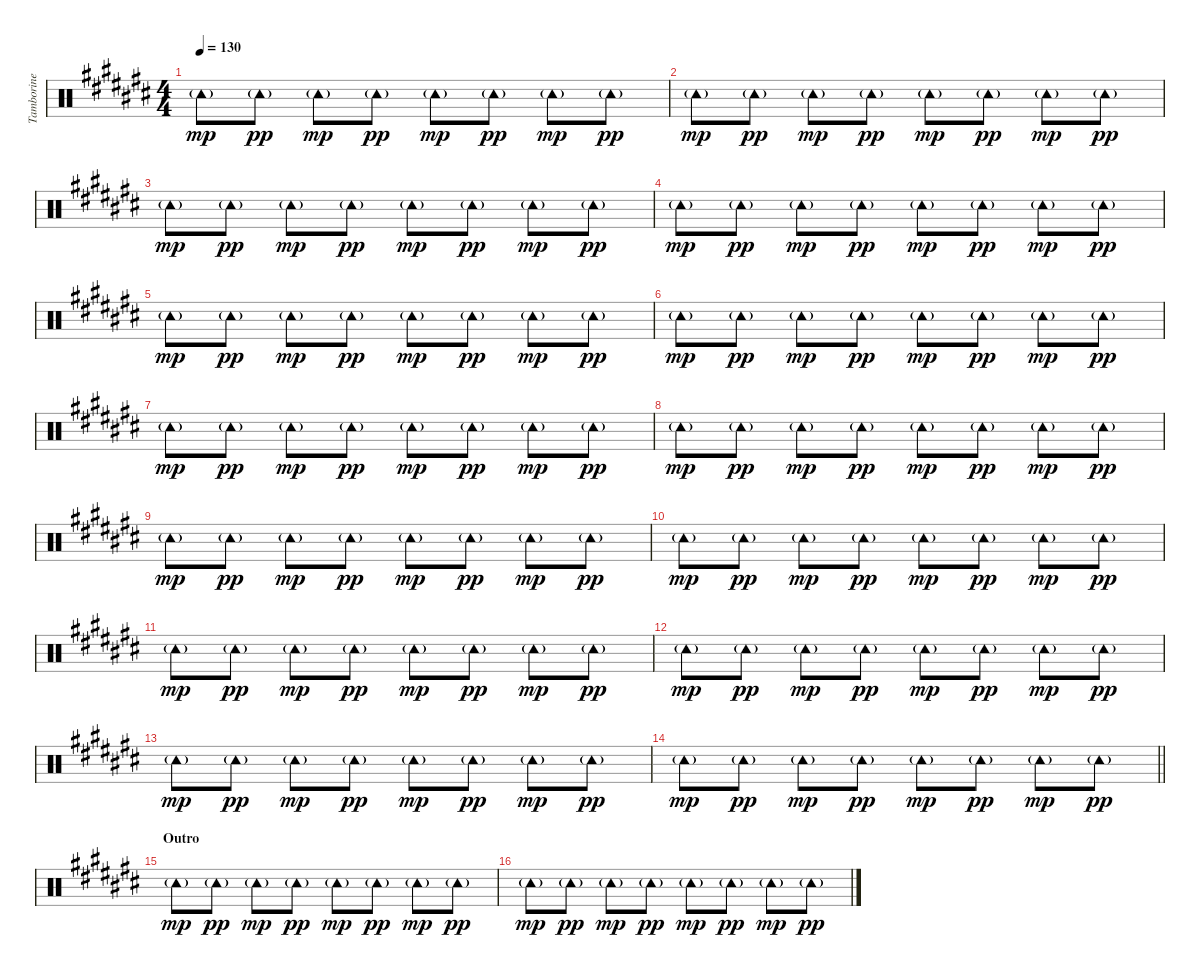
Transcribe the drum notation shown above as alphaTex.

\track ("Tamborine" "Tamborine") {instrument percussion}
\staff {score}
\articulation defaults
\ts (4 4)
\tempo 130
\clef neutral
\ks c# "Tambourine (hit)"{g}.8{dy mp} "Tambourine (hit)"{g}.8{dy pp} "Tambourine (hit)"{g}.8{dy mp} "Tambourine (hit)"{g}.8{dy pp} "Tambourine (hit)"{g}.8{dy mp} "Tambourine (hit)"{g}.8{dy pp} "Tambourine (hit)"{g}.8{dy mp} "Tambourine (hit)"{g}.8{dy pp}
|
"Tambourine (hit)"{g}.8{dy mp} "Tambourine (hit)"{g}.8{dy pp} "Tambourine (hit)"{g}.8{dy mp} "Tambourine (hit)"{g}.8{dy pp} "Tambourine (hit)"{g}.8{dy mp} "Tambourine (hit)"{g}.8{dy pp} "Tambourine (hit)"{g}.8{dy mp} "Tambourine (hit)"{g}.8{dy pp} |
"Tambourine (hit)"{g}.8{dy mp} "Tambourine (hit)"{g}.8{dy pp} "Tambourine (hit)"{g}.8{dy mp} "Tambourine (hit)"{g}.8{dy pp} "Tambourine (hit)"{g}.8{dy mp} "Tambourine (hit)"{g}.8{dy pp} "Tambourine (hit)"{g}.8{dy mp} "Tambourine (hit)"{g}.8{dy pp} |
"Tambourine (hit)"{g}.8{dy mp} "Tambourine (hit)"{g}.8{dy pp} "Tambourine (hit)"{g}.8{dy mp} "Tambourine (hit)"{g}.8{dy pp} "Tambourine (hit)"{g}.8{dy mp} "Tambourine (hit)"{g}.8{dy pp} "Tambourine (hit)"{g}.8{dy mp} "Tambourine (hit)"{g}.8{dy pp} |
"Tambourine (hit)"{g}.8{dy mp} "Tambourine (hit)"{g}.8{dy pp} "Tambourine (hit)"{g}.8{dy mp} "Tambourine (hit)"{g}.8{dy pp} "Tambourine (hit)"{g}.8{dy mp} "Tambourine (hit)"{g}.8{dy pp} "Tambourine (hit)"{g}.8{dy mp} "Tambourine (hit)"{g}.8{dy pp} |
"Tambourine (hit)"{g}.8{dy mp} "Tambourine (hit)"{g}.8{dy pp} "Tambourine (hit)"{g}.8{dy mp} "Tambourine (hit)"{g}.8{dy pp} "Tambourine (hit)"{g}.8{dy mp} "Tambourine (hit)"{g}.8{dy pp} "Tambourine (hit)"{g}.8{dy mp} "Tambourine (hit)"{g}.8{dy pp} |
"Tambourine (hit)"{g}.8{dy mp} "Tambourine (hit)"{g}.8{dy pp} "Tambourine (hit)"{g}.8{dy mp} "Tambourine (hit)"{g}.8{dy pp} "Tambourine (hit)"{g}.8{dy mp} "Tambourine (hit)"{g}.8{dy pp} "Tambourine (hit)"{g}.8{dy mp} "Tambourine (hit)"{g}.8{dy pp} |
"Tambourine (hit)"{g}.8{dy mp} "Tambourine (hit)"{g}.8{dy pp} "Tambourine (hit)"{g}.8{dy mp} "Tambourine (hit)"{g}.8{dy pp} "Tambourine (hit)"{g}.8{dy mp} "Tambourine (hit)"{g}.8{dy pp} "Tambourine (hit)"{g}.8{dy mp} "Tambourine (hit)"{g}.8{dy pp} |
"Tambourine (hit)"{g}.8{dy mp} "Tambourine (hit)"{g}.8{dy pp} "Tambourine (hit)"{g}.8{dy mp} "Tambourine (hit)"{g}.8{dy pp} "Tambourine (hit)"{g}.8{dy mp} "Tambourine (hit)"{g}.8{dy pp} "Tambourine (hit)"{g}.8{dy mp} "Tambourine (hit)"{g}.8{dy pp} |
"Tambourine (hit)"{g}.8{dy mp} "Tambourine (hit)"{g}.8{dy pp} "Tambourine (hit)"{g}.8{dy mp} "Tambourine (hit)"{g}.8{dy pp} "Tambourine (hit)"{g}.8{dy mp} "Tambourine (hit)"{g}.8{dy pp} "Tambourine (hit)"{g}.8{dy mp} "Tambourine (hit)"{g}.8{dy pp} |
"Tambourine (hit)"{g}.8{dy mp} "Tambourine (hit)"{g}.8{dy pp} "Tambourine (hit)"{g}.8{dy mp} "Tambourine (hit)"{g}.8{dy pp} "Tambourine (hit)"{g}.8{dy mp} "Tambourine (hit)"{g}.8{dy pp} "Tambourine (hit)"{g}.8{dy mp} "Tambourine (hit)"{g}.8{dy pp} |
"Tambourine (hit)"{g}.8{dy mp} "Tambourine (hit)"{g}.8{dy pp} "Tambourine (hit)"{g}.8{dy mp} "Tambourine (hit)"{g}.8{dy pp} "Tambourine (hit)"{g}.8{dy mp} "Tambourine (hit)"{g}.8{dy pp} "Tambourine (hit)"{g}.8{dy mp} "Tambourine (hit)"{g}.8{dy pp} |
"Tambourine (hit)"{g}.8{dy mp} "Tambourine (hit)"{g}.8{dy pp} "Tambourine (hit)"{g}.8{dy mp} "Tambourine (hit)"{g}.8{dy pp} "Tambourine (hit)"{g}.8{dy mp} "Tambourine (hit)"{g}.8{dy pp} "Tambourine (hit)"{g}.8{dy mp} "Tambourine (hit)"{g}.8{dy pp} |
\barLineRight lightlight "Tambourine (hit)"{g}.8{dy mp} "Tambourine (hit)"{g}.8{dy pp} "Tambourine (hit)"{g}.8{dy mp} "Tambourine (hit)"{g}.8{dy pp} "Tambourine (hit)"{g}.8{dy mp} "Tambourine (hit)"{g}.8{dy pp} "Tambourine (hit)"{g}.8{dy mp} "Tambourine (hit)"{g}.8{dy pp}
|
\section ("" "Outro")
"Tambourine (hit)"{g}.8{dy mp} "Tambourine (hit)"{g}.8{dy pp} "Tambourine (hit)"{g}.8{dy mp} "Tambourine (hit)"{g}.8{dy pp} "Tambourine (hit)"{g}.8{dy mp} "Tambourine (hit)"{g}.8{dy pp} "Tambourine (hit)"{g}.8{dy mp} "Tambourine (hit)"{g}.8{dy pp} |
"Tambourine (hit)"{g}.8{dy mp} "Tambourine (hit)"{g}.8{dy pp} "Tambourine (hit)"{g}.8{dy mp} "Tambourine (hit)"{g}.8{dy pp} "Tambourine (hit)"{g}.8{dy mp} "Tambourine (hit)"{g}.8{dy pp} "Tambourine (hit)"{g}.8{dy mp} "Tambourine (hit)"{g}.8{dy pp}
